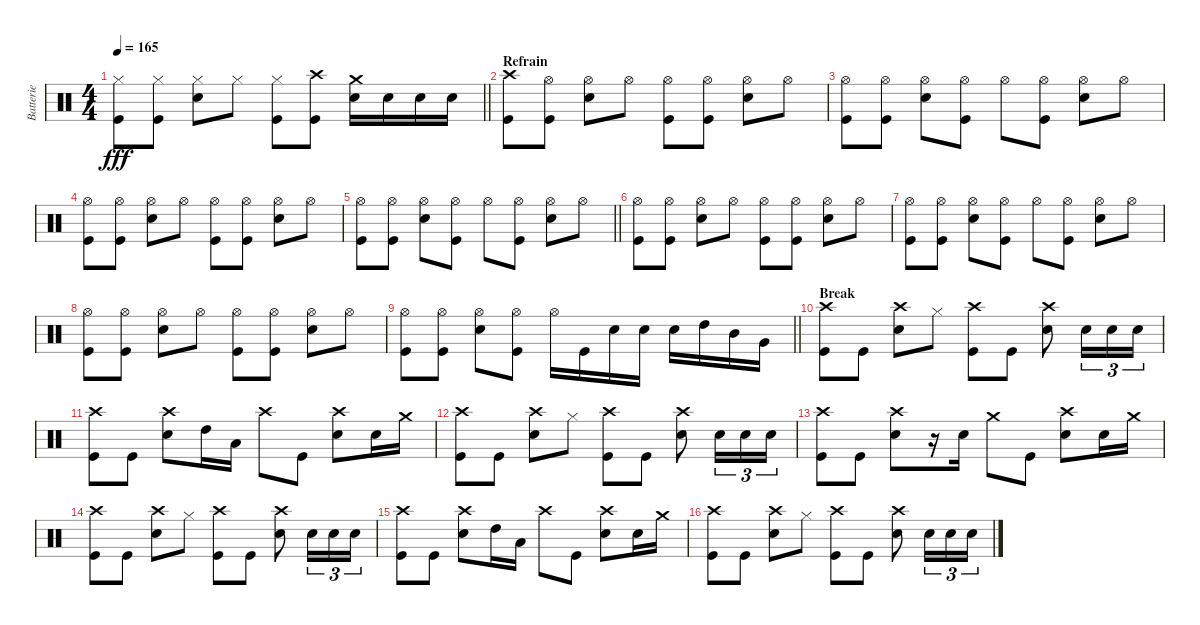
\track ("Batterie" "Batterie") {instrument percussion}
\staff {score}
\articulation defaults
\ts (4 4)
\tempo 165
\clef neutral
\barLineRight lightlight
\ks c
("Hi-Hat (closed)" "Kick (hit)").8{dy fff} ("Hi-Hat (closed)" "Kick (hit)").8 ("Hi-Hat (closed)" "Electric Snare (hit)").8 "Hi-Hat (closed)".8 ("Hi-Hat (closed)" "Kick (hit)").8 ("Crash high (hit)" "Kick (hit)").8 ("Crash medium (hit)" "Electric Snare (hit)").16 "Electric Snare (hit)".16 "Electric Snare (hit)".16 "Electric Snare (hit)".16 |
\section ("" "Refrain")
("Crash high (hit)" "Kick (hit)").8 ("Hi-Hat (open)" "Kick (hit)").8 ("Hi-Hat (open)" "Electric Snare (hit)").8 "Hi-Hat (open)".8 ("Hi-Hat (open)" "Kick (hit)").8 ("Hi-Hat (open)" "Kick (hit)").8 ("Hi-Hat (open)" "Electric Snare (hit)").8 "Hi-Hat (open)".8 |
("Hi-Hat (open)" "Kick (hit)").8 ("Hi-Hat (open)" "Kick (hit)").8 ("Hi-Hat (open)" "Electric Snare (hit)").8 ("Hi-Hat (open)" "Kick (hit)").8 "Hi-Hat (open)".8 ("Hi-Hat (open)" "Kick (hit)").8 ("Hi-Hat (open)" "Electric Snare (hit)").8 "Hi-Hat (open)".8 |
("Hi-Hat (open)" "Kick (hit)").8 ("Hi-Hat (open)" "Kick (hit)").8 ("Hi-Hat (open)" "Electric Snare (hit)").8 "Hi-Hat (open)".8 ("Hi-Hat (open)" "Kick (hit)").8 ("Hi-Hat (open)" "Kick (hit)").8 ("Hi-Hat (open)" "Electric Snare (hit)").8 "Hi-Hat (open)".8 |
\barLineRight lightlight
("Hi-Hat (open)" "Kick (hit)").8 ("Hi-Hat (open)" "Kick (hit)").8 ("Hi-Hat (open)" "Electric Snare (hit)").8 ("Hi-Hat (open)" "Kick (hit)").8 "Hi-Hat (open)".8 ("Hi-Hat (open)" "Kick (hit)").8 ("Hi-Hat (open)" "Electric Snare (hit)").8 "Hi-Hat (open)".8 |
("Hi-Hat (open)" "Kick (hit)").8 ("Hi-Hat (open)" "Kick (hit)").8 ("Hi-Hat (open)" "Electric Snare (hit)").8 "Hi-Hat (open)".8 ("Hi-Hat (open)" "Kick (hit)").8 ("Hi-Hat (open)" "Kick (hit)").8 ("Hi-Hat (open)" "Electric Snare (hit)").8 "Hi-Hat (open)".8 |
("Hi-Hat (open)" "Kick (hit)").8 ("Hi-Hat (open)" "Kick (hit)").8 ("Hi-Hat (open)" "Electric Snare (hit)").8 ("Hi-Hat (open)" "Kick (hit)").8 "Hi-Hat (open)".8 ("Hi-Hat (open)" "Kick (hit)").8 ("Hi-Hat (open)" "Electric Snare (hit)").8 "Hi-Hat (open)".8 |
("Hi-Hat (open)" "Kick (hit)").8 ("Hi-Hat (open)" "Kick (hit)").8 ("Hi-Hat (open)" "Electric Snare (hit)").8 "Hi-Hat (open)".8 ("Hi-Hat (open)" "Kick (hit)").8 ("Hi-Hat (open)" "Kick (hit)").8 ("Hi-Hat (open)" "Electric Snare (hit)").8 "Hi-Hat (open)".8 |
\barLineRight lightlight
("Hi-Hat (open)" "Kick (hit)").8 ("Hi-Hat (open)" "Kick (hit)").8 ("Hi-Hat (open)" "Electric Snare (hit)").8 ("Hi-Hat (open)" "Kick (hit)").8 "Hi-Hat (open)".16 "Kick (hit)".16 "Electric Snare (hit)".16 "Electric Snare (hit)".16 "Electric Snare (hit)".16 "High Tom (hit)".16 "Mid Tom (hit)".16 "Very Low Tom (hit)".16 |
\section ("" "Break")
("Crash high (hit)" "Kick (hit)").8 "Kick (hit)".8 ("Crash high (hit)" "Electric Snare (hit)").8 "Hi-Hat (closed)".8 ("Crash high (hit)" "Kick (hit)").8 "Kick (hit)".8 ("Crash high (hit)" "Electric Snare (hit)").8 "Electric Snare (hit)".16{tu (3 2)} "Electric Snare (hit)".16{tu (3 2)} "Electric Snare (hit)".16{tu (3 2)} |
("Crash high (hit)" "Kick (hit)").8 "Kick (hit)".8 ("Crash high (hit)" "Electric Snare (hit)").8 "High Tom (hit)".16 "Low Tom (hit)".16 "Crash high (hit)".8 "Kick (hit)".8 ("Crash high (hit)" "Electric Snare (hit)").8 "Snare (hit) 2".16 "Crash medium (hit)".16 |
("Crash high (hit)" "Kick (hit)").8 "Kick (hit)".8 ("Crash high (hit)" "Electric Snare (hit)").8 "Hi-Hat (closed)".8 ("Crash high (hit)" "Kick (hit)").8 "Kick (hit)".8 ("Crash high (hit)" "Electric Snare (hit)").8 "Electric Snare (hit)".16{tu (3 2)} "Electric Snare (hit)".16{tu (3 2)} "Electric Snare (hit)".16{tu (3 2)} |
("Crash high (hit)" "Kick (hit)").8 "Kick (hit)".8 ("Crash high (hit)" "Electric Snare (hit)").8 r.16 "Snare (hit) 2".16 "Crash medium (hit)".8 "Kick (hit)".8 ("Crash high (hit)" "Electric Snare (hit)").8 "Snare (hit) 2".16 "Crash medium (hit)".16 |
("Crash high (hit)" "Kick (hit)").8 "Kick (hit)".8 ("Crash high (hit)" "Electric Snare (hit)").8 "Hi-Hat (closed)".8 ("Crash high (hit)" "Kick (hit)").8 "Kick (hit)".8 ("Crash high (hit)" "Electric Snare (hit)").8 "Electric Snare (hit)".16{tu (3 2)} "Electric Snare (hit)".16{tu (3 2)} "Electric Snare (hit)".16{tu (3 2)} |
("Crash high (hit)" "Kick (hit)").8 "Kick (hit)".8 ("Crash high (hit)" "Electric Snare (hit)").8 "High Tom (hit)".16 "Low Tom (hit)".16 "Crash high (hit)".8 "Kick (hit)".8 ("Crash high (hit)" "Electric Snare (hit)").8 "Snare (hit) 2".16 "Crash medium (hit)".16 |
("Crash high (hit)" "Kick (hit)").8 "Kick (hit)".8 ("Crash high (hit)" "Electric Snare (hit)").8 "Hi-Hat (closed)".8 ("Crash high (hit)" "Kick (hit)").8 "Kick (hit)".8 ("Crash high (hit)" "Electric Snare (hit)").8 "Electric Snare (hit)".16{tu (3 2)} "Electric Snare (hit)".16{tu (3 2)} "Electric Snare (hit)".16{tu (3 2)}
